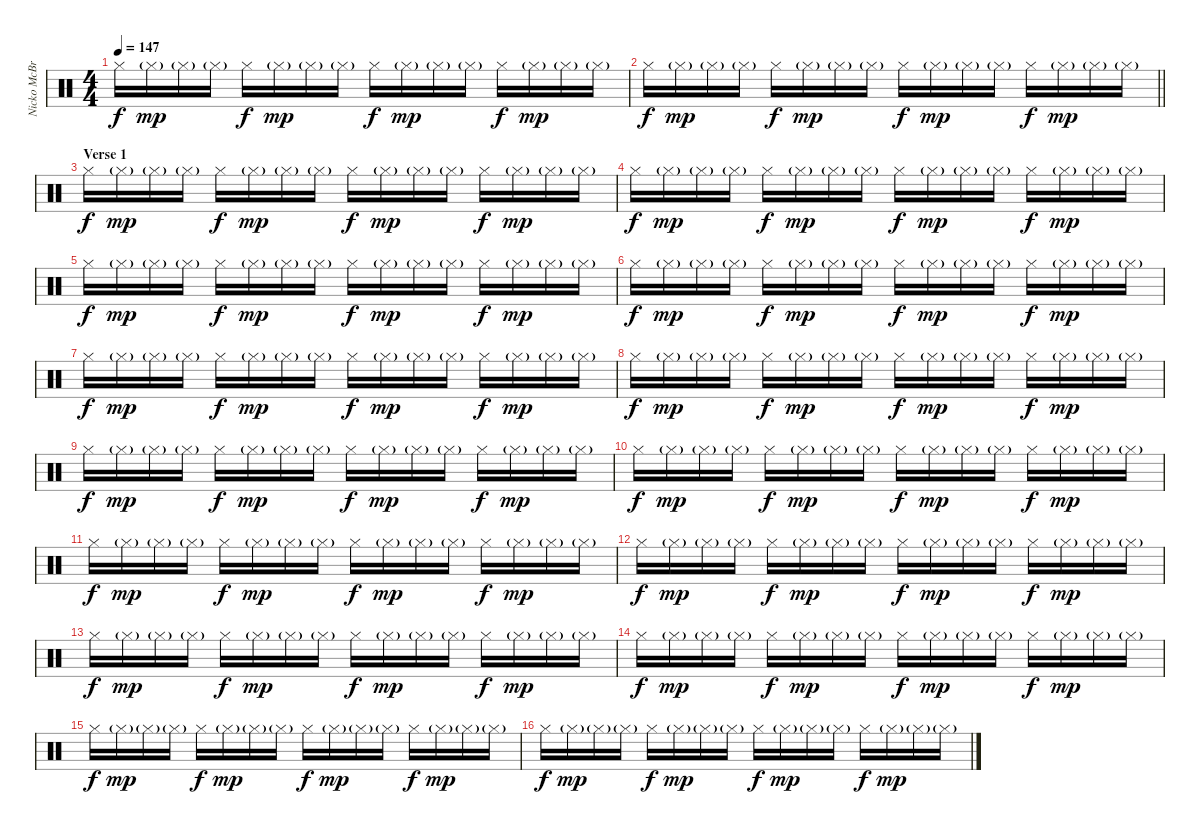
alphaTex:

\track ("Nicko McBrain" "Nicko McBr") {instrument percussion}
\staff {score}
\articulation defaults
\ts (4 4)
\tempo 147
\clef neutral
\ks c "Hi-Hat (closed)".16{dy f} "Hi-Hat (closed)"{g}.16{dy mp} "Hi-Hat (closed)"{g}.16 "Hi-Hat (closed)"{g}.16 "Hi-Hat (closed)".16{dy f} "Hi-Hat (closed)"{g}.16{dy mp} "Hi-Hat (closed)"{g}.16 "Hi-Hat (closed)"{g}.16 "Hi-Hat (closed)".16{dy f} "Hi-Hat (closed)"{g}.16{dy mp} "Hi-Hat (closed)"{g}.16 "Hi-Hat (closed)"{g}.16 "Hi-Hat (closed)".16{dy f} "Hi-Hat (closed)"{g}.16{dy mp} "Hi-Hat (closed)"{g}.16 "Hi-Hat (closed)"{g}.16
|
\barLineRight lightlight "Hi-Hat (closed)".16{dy f} "Hi-Hat (closed)"{g}.16{dy mp} "Hi-Hat (closed)"{g}.16 "Hi-Hat (closed)"{g}.16 "Hi-Hat (closed)".16{dy f} "Hi-Hat (closed)"{g}.16{dy mp} "Hi-Hat (closed)"{g}.16 "Hi-Hat (closed)"{g}.16 "Hi-Hat (closed)".16{dy f} "Hi-Hat (closed)"{g}.16{dy mp} "Hi-Hat (closed)"{g}.16 "Hi-Hat (closed)"{g}.16 "Hi-Hat (closed)".16{dy f} "Hi-Hat (closed)"{g}.16{dy mp} "Hi-Hat (closed)"{g}.16 "Hi-Hat (closed)"{g}.16
|
\section ("" "Verse 1")
"Hi-Hat (closed)".16{dy f} "Hi-Hat (closed)"{g}.16{dy mp} "Hi-Hat (closed)"{g}.16 "Hi-Hat (closed)"{g}.16 "Hi-Hat (closed)".16{dy f} "Hi-Hat (closed)"{g}.16{dy mp} "Hi-Hat (closed)"{g}.16 "Hi-Hat (closed)"{g}.16 "Hi-Hat (closed)".16{dy f} "Hi-Hat (closed)"{g}.16{dy mp} "Hi-Hat (closed)"{g}.16 "Hi-Hat (closed)"{g}.16 "Hi-Hat (closed)".16{dy f} "Hi-Hat (closed)"{g}.16{dy mp} "Hi-Hat (closed)"{g}.16 "Hi-Hat (closed)"{g}.16 |
"Hi-Hat (closed)".16{dy f} "Hi-Hat (closed)"{g}.16{dy mp} "Hi-Hat (closed)"{g}.16 "Hi-Hat (closed)"{g}.16 "Hi-Hat (closed)".16{dy f} "Hi-Hat (closed)"{g}.16{dy mp} "Hi-Hat (closed)"{g}.16 "Hi-Hat (closed)"{g}.16 "Hi-Hat (closed)".16{dy f} "Hi-Hat (closed)"{g}.16{dy mp} "Hi-Hat (closed)"{g}.16 "Hi-Hat (closed)"{g}.16 "Hi-Hat (closed)".16{dy f} "Hi-Hat (closed)"{g}.16{dy mp} "Hi-Hat (closed)"{g}.16 "Hi-Hat (closed)"{g}.16 |
"Hi-Hat (closed)".16{dy f} "Hi-Hat (closed)"{g}.16{dy mp} "Hi-Hat (closed)"{g}.16 "Hi-Hat (closed)"{g}.16 "Hi-Hat (closed)".16{dy f} "Hi-Hat (closed)"{g}.16{dy mp} "Hi-Hat (closed)"{g}.16 "Hi-Hat (closed)"{g}.16 "Hi-Hat (closed)".16{dy f} "Hi-Hat (closed)"{g}.16{dy mp} "Hi-Hat (closed)"{g}.16 "Hi-Hat (closed)"{g}.16 "Hi-Hat (closed)".16{dy f} "Hi-Hat (closed)"{g}.16{dy mp} "Hi-Hat (closed)"{g}.16 "Hi-Hat (closed)"{g}.16 |
"Hi-Hat (closed)".16{dy f} "Hi-Hat (closed)"{g}.16{dy mp} "Hi-Hat (closed)"{g}.16 "Hi-Hat (closed)"{g}.16 "Hi-Hat (closed)".16{dy f} "Hi-Hat (closed)"{g}.16{dy mp} "Hi-Hat (closed)"{g}.16 "Hi-Hat (closed)"{g}.16 "Hi-Hat (closed)".16{dy f} "Hi-Hat (closed)"{g}.16{dy mp} "Hi-Hat (closed)"{g}.16 "Hi-Hat (closed)"{g}.16 "Hi-Hat (closed)".16{dy f} "Hi-Hat (closed)"{g}.16{dy mp} "Hi-Hat (closed)"{g}.16 "Hi-Hat (closed)"{g}.16 |
"Hi-Hat (closed)".16{dy f} "Hi-Hat (closed)"{g}.16{dy mp} "Hi-Hat (closed)"{g}.16 "Hi-Hat (closed)"{g}.16 "Hi-Hat (closed)".16{dy f} "Hi-Hat (closed)"{g}.16{dy mp} "Hi-Hat (closed)"{g}.16 "Hi-Hat (closed)"{g}.16 "Hi-Hat (closed)".16{dy f} "Hi-Hat (closed)"{g}.16{dy mp} "Hi-Hat (closed)"{g}.16 "Hi-Hat (closed)"{g}.16 "Hi-Hat (closed)".16{dy f} "Hi-Hat (closed)"{g}.16{dy mp} "Hi-Hat (closed)"{g}.16 "Hi-Hat (closed)"{g}.16 |
"Hi-Hat (closed)".16{dy f} "Hi-Hat (closed)"{g}.16{dy mp} "Hi-Hat (closed)"{g}.16 "Hi-Hat (closed)"{g}.16 "Hi-Hat (closed)".16{dy f} "Hi-Hat (closed)"{g}.16{dy mp} "Hi-Hat (closed)"{g}.16 "Hi-Hat (closed)"{g}.16 "Hi-Hat (closed)".16{dy f} "Hi-Hat (closed)"{g}.16{dy mp} "Hi-Hat (closed)"{g}.16 "Hi-Hat (closed)"{g}.16 "Hi-Hat (closed)".16{dy f} "Hi-Hat (closed)"{g}.16{dy mp} "Hi-Hat (closed)"{g}.16 "Hi-Hat (closed)"{g}.16 |
"Hi-Hat (closed)".16{dy f} "Hi-Hat (closed)"{g}.16{dy mp} "Hi-Hat (closed)"{g}.16 "Hi-Hat (closed)"{g}.16 "Hi-Hat (closed)".16{dy f} "Hi-Hat (closed)"{g}.16{dy mp} "Hi-Hat (closed)"{g}.16 "Hi-Hat (closed)"{g}.16 "Hi-Hat (closed)".16{dy f} "Hi-Hat (closed)"{g}.16{dy mp} "Hi-Hat (closed)"{g}.16 "Hi-Hat (closed)"{g}.16 "Hi-Hat (closed)".16{dy f} "Hi-Hat (closed)"{g}.16{dy mp} "Hi-Hat (closed)"{g}.16 "Hi-Hat (closed)"{g}.16 |
"Hi-Hat (closed)".16{dy f} "Hi-Hat (closed)"{g}.16{dy mp} "Hi-Hat (closed)"{g}.16 "Hi-Hat (closed)"{g}.16 "Hi-Hat (closed)".16{dy f} "Hi-Hat (closed)"{g}.16{dy mp} "Hi-Hat (closed)"{g}.16 "Hi-Hat (closed)"{g}.16 "Hi-Hat (closed)".16{dy f} "Hi-Hat (closed)"{g}.16{dy mp} "Hi-Hat (closed)"{g}.16 "Hi-Hat (closed)"{g}.16 "Hi-Hat (closed)".16{dy f} "Hi-Hat (closed)"{g}.16{dy mp} "Hi-Hat (closed)"{g}.16 "Hi-Hat (closed)"{g}.16 |
"Hi-Hat (closed)".16{dy f} "Hi-Hat (closed)"{g}.16{dy mp} "Hi-Hat (closed)"{g}.16 "Hi-Hat (closed)"{g}.16 "Hi-Hat (closed)".16{dy f} "Hi-Hat (closed)"{g}.16{dy mp} "Hi-Hat (closed)"{g}.16 "Hi-Hat (closed)"{g}.16 "Hi-Hat (closed)".16{dy f} "Hi-Hat (closed)"{g}.16{dy mp} "Hi-Hat (closed)"{g}.16 "Hi-Hat (closed)"{g}.16 "Hi-Hat (closed)".16{dy f} "Hi-Hat (closed)"{g}.16{dy mp} "Hi-Hat (closed)"{g}.16 "Hi-Hat (closed)"{g}.16 |
"Hi-Hat (closed)".16{dy f} "Hi-Hat (closed)"{g}.16{dy mp} "Hi-Hat (closed)"{g}.16 "Hi-Hat (closed)"{g}.16 "Hi-Hat (closed)".16{dy f} "Hi-Hat (closed)"{g}.16{dy mp} "Hi-Hat (closed)"{g}.16 "Hi-Hat (closed)"{g}.16 "Hi-Hat (closed)".16{dy f} "Hi-Hat (closed)"{g}.16{dy mp} "Hi-Hat (closed)"{g}.16 "Hi-Hat (closed)"{g}.16 "Hi-Hat (closed)".16{dy f} "Hi-Hat (closed)"{g}.16{dy mp} "Hi-Hat (closed)"{g}.16 "Hi-Hat (closed)"{g}.16 |
"Hi-Hat (closed)".16{dy f} "Hi-Hat (closed)"{g}.16{dy mp} "Hi-Hat (closed)"{g}.16 "Hi-Hat (closed)"{g}.16 "Hi-Hat (closed)".16{dy f} "Hi-Hat (closed)"{g}.16{dy mp} "Hi-Hat (closed)"{g}.16 "Hi-Hat (closed)"{g}.16 "Hi-Hat (closed)".16{dy f} "Hi-Hat (closed)"{g}.16{dy mp} "Hi-Hat (closed)"{g}.16 "Hi-Hat (closed)"{g}.16 "Hi-Hat (closed)".16{dy f} "Hi-Hat (closed)"{g}.16{dy mp} "Hi-Hat (closed)"{g}.16 "Hi-Hat (closed)"{g}.16 |
"Hi-Hat (closed)".16{dy f} "Hi-Hat (closed)"{g}.16{dy mp} "Hi-Hat (closed)"{g}.16 "Hi-Hat (closed)"{g}.16 "Hi-Hat (closed)".16{dy f} "Hi-Hat (closed)"{g}.16{dy mp} "Hi-Hat (closed)"{g}.16 "Hi-Hat (closed)"{g}.16 "Hi-Hat (closed)".16{dy f} "Hi-Hat (closed)"{g}.16{dy mp} "Hi-Hat (closed)"{g}.16 "Hi-Hat (closed)"{g}.16 "Hi-Hat (closed)".16{dy f} "Hi-Hat (closed)"{g}.16{dy mp} "Hi-Hat (closed)"{g}.16 "Hi-Hat (closed)"{g}.16 |
"Hi-Hat (closed)".16{dy f} "Hi-Hat (closed)"{g}.16{dy mp} "Hi-Hat (closed)"{g}.16 "Hi-Hat (closed)"{g}.16 "Hi-Hat (closed)".16{dy f} "Hi-Hat (closed)"{g}.16{dy mp} "Hi-Hat (closed)"{g}.16 "Hi-Hat (closed)"{g}.16 "Hi-Hat (closed)".16{dy f} "Hi-Hat (closed)"{g}.16{dy mp} "Hi-Hat (closed)"{g}.16 "Hi-Hat (closed)"{g}.16 "Hi-Hat (closed)".16{dy f} "Hi-Hat (closed)"{g}.16{dy mp} "Hi-Hat (closed)"{g}.16 "Hi-Hat (closed)"{g}.16 |
"Hi-Hat (closed)".16{dy f} "Hi-Hat (closed)"{g}.16{dy mp} "Hi-Hat (closed)"{g}.16 "Hi-Hat (closed)"{g}.16 "Hi-Hat (closed)".16{dy f} "Hi-Hat (closed)"{g}.16{dy mp} "Hi-Hat (closed)"{g}.16 "Hi-Hat (closed)"{g}.16 "Hi-Hat (closed)".16{dy f} "Hi-Hat (closed)"{g}.16{dy mp} "Hi-Hat (closed)"{g}.16 "Hi-Hat (closed)"{g}.16 "Hi-Hat (closed)".16{dy f} "Hi-Hat (closed)"{g}.16{dy mp} "Hi-Hat (closed)"{g}.16 "Hi-Hat (closed)"{g}.16
